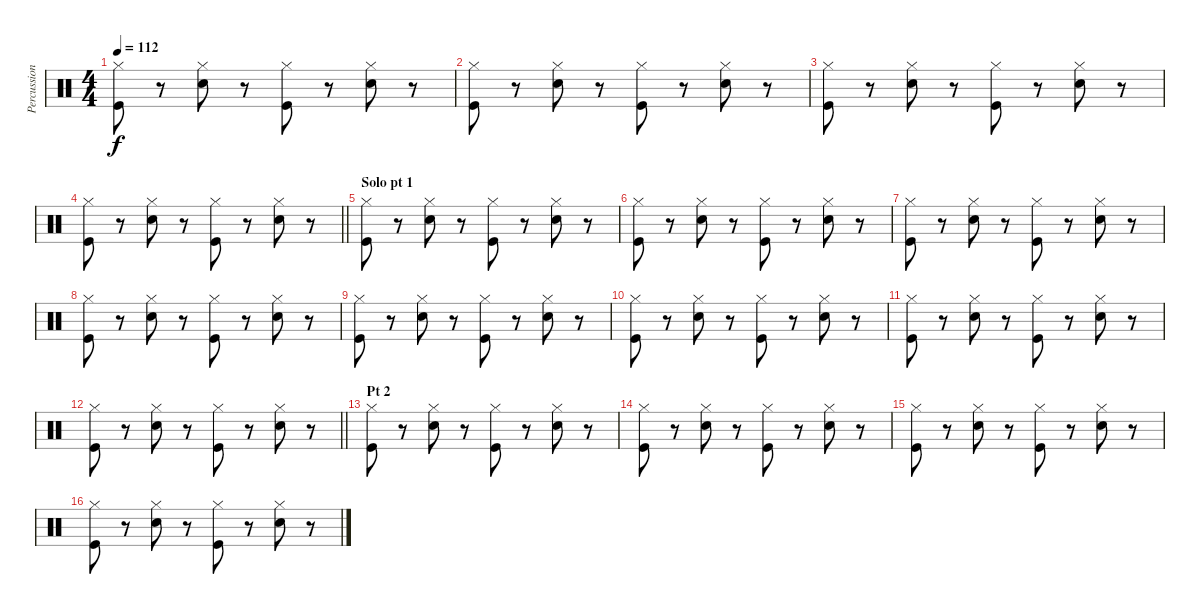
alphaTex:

\track ("Percussion" "Percussion") {instrument percussion}
\staff
\articulation defaults
\ts (4 4)
\tempo 112
\clef neutral
\ks c
("Kick (hit)" "Hi-Hat (closed)").8{dy f} r.8 ("Electric Snare (hit)" "Hi-Hat (closed)").8 r.8 ("Kick (hit)" "Hi-Hat (closed)").8 r.8 ("Electric Snare (hit)" "Hi-Hat (closed)").8 r.8 |
("Kick (hit)" "Hi-Hat (closed)").8 r.8 ("Electric Snare (hit)" "Hi-Hat (closed)").8 r.8 ("Kick (hit)" "Hi-Hat (closed)").8 r.8 ("Electric Snare (hit)" "Hi-Hat (closed)").8 r.8 |
("Kick (hit)" "Hi-Hat (closed)").8 r.8 ("Electric Snare (hit)" "Hi-Hat (closed)").8 r.8 ("Kick (hit)" "Hi-Hat (closed)").8 r.8 ("Electric Snare (hit)" "Hi-Hat (closed)").8 r.8 |
\barLineRight lightlight
("Kick (hit)" "Hi-Hat (closed)").8 r.8 ("Electric Snare (hit)" "Hi-Hat (closed)").8 r.8 ("Kick (hit)" "Hi-Hat (closed)").8 r.8 ("Electric Snare (hit)" "Hi-Hat (closed)").8 r.8 |
\section ("" "Solo pt 1")
("Kick (hit)" "Hi-Hat (closed)").8 r.8 ("Electric Snare (hit)" "Hi-Hat (closed)").8 r.8 ("Kick (hit)" "Hi-Hat (closed)").8 r.8 ("Electric Snare (hit)" "Hi-Hat (closed)").8 r.8 |
("Kick (hit)" "Hi-Hat (closed)").8 r.8 ("Electric Snare (hit)" "Hi-Hat (closed)").8 r.8 ("Kick (hit)" "Hi-Hat (closed)").8 r.8 ("Electric Snare (hit)" "Hi-Hat (closed)").8 r.8 |
("Kick (hit)" "Hi-Hat (closed)").8 r.8 ("Electric Snare (hit)" "Hi-Hat (closed)").8 r.8 ("Kick (hit)" "Hi-Hat (closed)").8 r.8 ("Electric Snare (hit)" "Hi-Hat (closed)").8 r.8 |
("Kick (hit)" "Hi-Hat (closed)").8 r.8 ("Electric Snare (hit)" "Hi-Hat (closed)").8 r.8 ("Kick (hit)" "Hi-Hat (closed)").8 r.8 ("Electric Snare (hit)" "Hi-Hat (closed)").8 r.8 |
("Kick (hit)" "Hi-Hat (closed)").8 r.8 ("Electric Snare (hit)" "Hi-Hat (closed)").8 r.8 ("Kick (hit)" "Hi-Hat (closed)").8 r.8 ("Electric Snare (hit)" "Hi-Hat (closed)").8 r.8 |
("Kick (hit)" "Hi-Hat (closed)").8 r.8 ("Electric Snare (hit)" "Hi-Hat (closed)").8 r.8 ("Kick (hit)" "Hi-Hat (closed)").8 r.8 ("Electric Snare (hit)" "Hi-Hat (closed)").8 r.8 |
("Kick (hit)" "Hi-Hat (closed)").8 r.8 ("Electric Snare (hit)" "Hi-Hat (closed)").8 r.8 ("Kick (hit)" "Hi-Hat (closed)").8 r.8 ("Electric Snare (hit)" "Hi-Hat (closed)").8 r.8 |
\barLineRight lightlight
("Kick (hit)" "Hi-Hat (closed)").8 r.8 ("Electric Snare (hit)" "Hi-Hat (closed)").8 r.8 ("Kick (hit)" "Hi-Hat (closed)").8 r.8 ("Electric Snare (hit)" "Hi-Hat (closed)").8 r.8 |
\section ("" "Pt 2")
("Kick (hit)" "Hi-Hat (closed)").8 r.8 ("Electric Snare (hit)" "Hi-Hat (closed)").8 r.8 ("Kick (hit)" "Hi-Hat (closed)").8 r.8 ("Electric Snare (hit)" "Hi-Hat (closed)").8 r.8 |
("Kick (hit)" "Hi-Hat (closed)").8 r.8 ("Electric Snare (hit)" "Hi-Hat (closed)").8 r.8 ("Kick (hit)" "Hi-Hat (closed)").8 r.8 ("Electric Snare (hit)" "Hi-Hat (closed)").8 r.8 |
("Kick (hit)" "Hi-Hat (closed)").8 r.8 ("Electric Snare (hit)" "Hi-Hat (closed)").8 r.8 ("Kick (hit)" "Hi-Hat (closed)").8 r.8 ("Electric Snare (hit)" "Hi-Hat (closed)").8 r.8 |
("Kick (hit)" "Hi-Hat (closed)").8 r.8 ("Electric Snare (hit)" "Hi-Hat (closed)").8 r.8 ("Kick (hit)" "Hi-Hat (closed)").8 r.8 ("Electric Snare (hit)" "Hi-Hat (closed)").8 r.8
